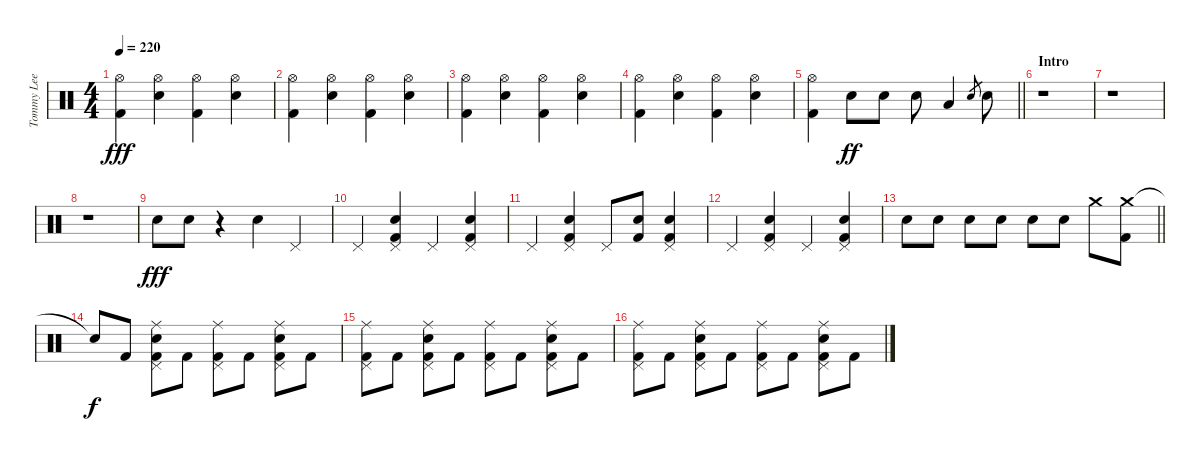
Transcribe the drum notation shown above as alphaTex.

\track ("Tommy Lee - Drums" "Tommy Lee ") {instrument percussion}
\staff {score}
\articulation defaults
\ts (4 4)
\tempo 220
\clef neutral
\ks c
("Hi-Hat (open)" "Kick (hit) 2").4{dy fff} ("Hi-Hat (open)" "Electric Snare (hit)").4 ("Hi-Hat (open)" "Kick (hit) 2").4 ("Hi-Hat (open)" "Electric Snare (hit)").4 |
("Hi-Hat (open)" "Kick (hit) 2").4 ("Hi-Hat (open)" "Electric Snare (hit)").4 ("Hi-Hat (open)" "Kick (hit) 2").4 ("Hi-Hat (open)" "Electric Snare (hit)").4 |
("Hi-Hat (open)" "Kick (hit) 2").4 ("Hi-Hat (open)" "Electric Snare (hit)").4 ("Hi-Hat (open)" "Kick (hit) 2").4 ("Hi-Hat (open)" "Electric Snare (hit)").4 |
("Hi-Hat (open)" "Kick (hit) 2").4 ("Hi-Hat (open)" "Electric Snare (hit)").4 ("Hi-Hat (open)" "Kick (hit) 2").4 ("Hi-Hat (open)" "Electric Snare (hit)").4 |
\barLineRight lightlight
("Hi-Hat (open)" "Kick (hit) 2").4 "Electric Snare (hit)".8{dy ff} "Electric Snare (hit)".8 "Electric Snare (hit)".8 "Low Tom (hit)".4 "Electric Snare (hit)".8{gr} "Electric Snare (hit)".8 |
\section ("" "Intro")
r.1 |
r.1 |
r.1 |
"Electric Snare (hit)".8{dy fff} "Electric Snare (hit)".8 r.4 "Electric Snare (hit)".4 "Pedal Hi-Hat (hit)".4 |
"Pedal Hi-Hat (hit)".4 ("Pedal Hi-Hat (hit)" "Electric Snare (hit)" "Kick (hit) 2").4 "Pedal Hi-Hat (hit)".4 ("Pedal Hi-Hat (hit)" "Electric Snare (hit)" "Kick (hit) 2").4 |
"Pedal Hi-Hat (hit)".4 ("Pedal Hi-Hat (hit)" "Electric Snare (hit)" "Kick (hit) 2").4 "Pedal Hi-Hat (hit)".8 ("Electric Snare (hit)" "Kick (hit) 2").8 ("Pedal Hi-Hat (hit)" "Electric Snare (hit)" "Kick (hit) 2").4 |
"Pedal Hi-Hat (hit)".4 ("Pedal Hi-Hat (hit)" "Electric Snare (hit)" "Kick (hit) 2").4 "Pedal Hi-Hat (hit)".4 ("Pedal Hi-Hat (hit)" "Electric Snare (hit)" "Kick (hit) 2").4 |
\barLineRight lightlight "Electric Snare (hit)".8 "Electric Snare (hit)".8 "Electric Snare (hit)".8 "Electric Snare (hit)".8 "Electric Snare (hit)".8 "Electric Snare (hit)".8 "Crash medium (hit)".8
("Crash medium (hit)" "Kick (hit) 2").8 |
"Snare (hit)"{t}.8{dy f} "Kick (hit) 2".8 ("Ride (middle)" "Pedal Hi-Hat (hit)" "Electric Snare (hit)" "Kick (hit) 2").8 "Kick (hit) 2".8 ("Ride (middle)" "Pedal Hi-Hat (hit)" "Kick (hit) 2").8 "Kick (hit) 2".8 ("Ride (middle)" "Pedal Hi-Hat (hit)" "Electric Snare (hit)" "Kick (hit) 2").8 "Kick (hit) 2".8 |
("Ride (middle)" "Pedal Hi-Hat (hit)" "Kick (hit) 2").8 "Kick (hit) 2".8 ("Ride (middle)" "Pedal Hi-Hat (hit)" "Electric Snare (hit)" "Kick (hit) 2").8 "Kick (hit) 2".8 ("Ride (middle)" "Pedal Hi-Hat (hit)" "Kick (hit) 2").8 "Kick (hit) 2".8 ("Ride (middle)" "Pedal Hi-Hat (hit)" "Electric Snare (hit)" "Kick (hit) 2").8 "Kick (hit) 2".8 |
("Ride (middle)" "Pedal Hi-Hat (hit)" "Kick (hit) 2").8 "Kick (hit) 2".8 ("Ride (middle)" "Pedal Hi-Hat (hit)" "Electric Snare (hit)" "Kick (hit) 2").8 "Kick (hit) 2".8 ("Ride (middle)" "Pedal Hi-Hat (hit)" "Kick (hit) 2").8 "Kick (hit) 2".8 ("Ride (middle)" "Pedal Hi-Hat (hit)" "Electric Snare (hit)" "Kick (hit) 2").8 "Kick (hit) 2".8
